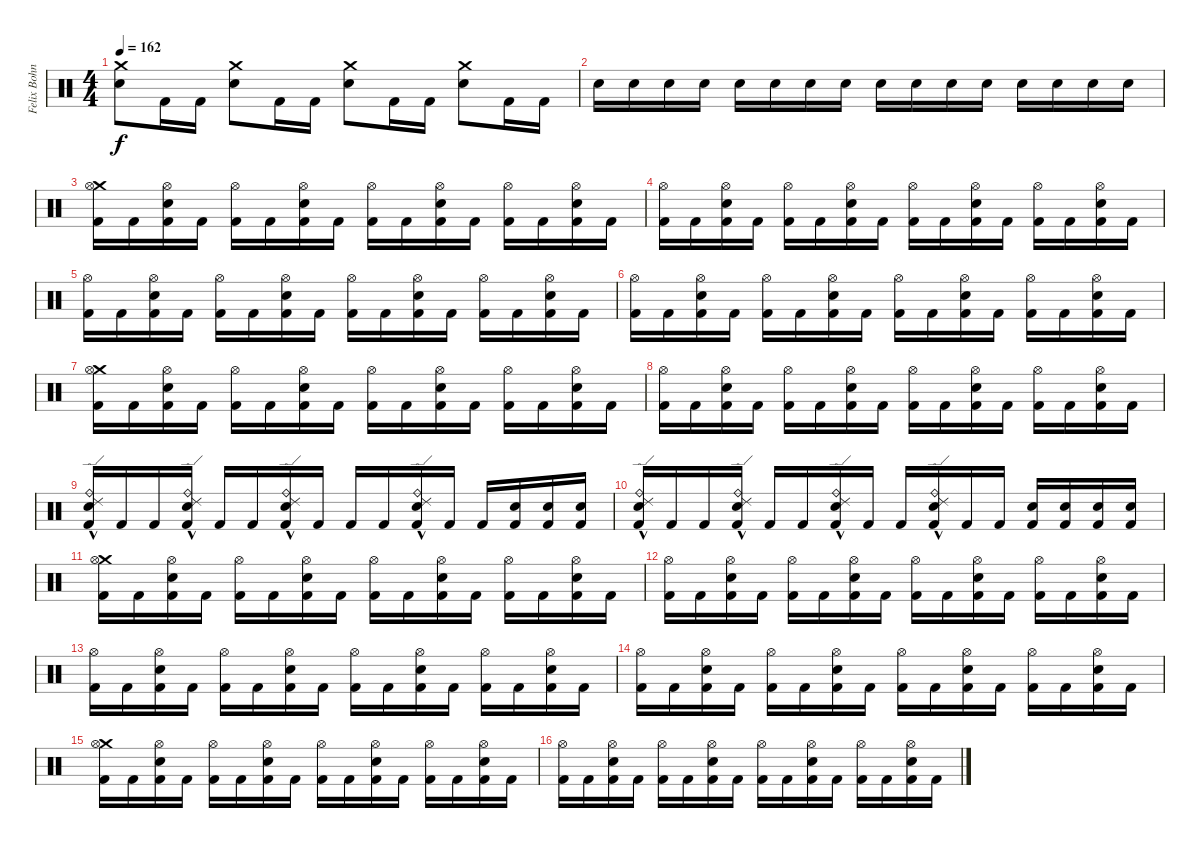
\track ("Felix Bohnke" "Felix Bohn") {instrument percussion}
\staff {score}
\articulation defaults
\ts (4 4)
\tempo 162
\clef neutral
\ks c
("Electric Snare (hit)" "Crash medium (hit)").8{dy f} "Kick (hit) 2".16 "Kick (hit) 2".16 ("Electric Snare (hit)" "Crash medium (hit)").8 "Kick (hit) 2".16 "Kick (hit) 2".16 ("Electric Snare (hit)" "Crash medium (hit)").8 "Kick (hit) 2".16 "Kick (hit) 2".16 ("Electric Snare (hit)" "Crash medium (hit)").8 "Kick (hit) 2".16 "Kick (hit) 2".16 |
"Electric Snare (hit)".16 "Electric Snare (hit)".16 "Electric Snare (hit)".16 "Electric Snare (hit)".16 "Electric Snare (hit)".16 "Electric Snare (hit)".16 "Electric Snare (hit)".16 "Electric Snare (hit)".16 "Electric Snare (hit)".16 "Electric Snare (hit)".16 "Electric Snare (hit)".16 "Electric Snare (hit)".16 "Electric Snare (hit)".16 "Electric Snare (hit)".16 "Electric Snare (hit)".16 "Electric Snare (hit)".16 |
("Crash medium (hit)" "Hi-Hat (open)" "Kick (hit) 2").16 "Kick (hit) 2".16 ("Electric Snare (hit)" "Hi-Hat (open)" "Kick (hit) 2").16 "Kick (hit) 2".16 ("Hi-Hat (open)" "Kick (hit) 2").16 "Kick (hit) 2".16 ("Electric Snare (hit)" "Hi-Hat (open)" "Kick (hit) 2").16 "Kick (hit) 2".16 ("Hi-Hat (open)" "Kick (hit) 2").16 "Kick (hit) 2".16 ("Electric Snare (hit)" "Hi-Hat (open)" "Kick (hit) 2").16 "Kick (hit) 2".16 ("Hi-Hat (open)" "Kick (hit) 2").16 "Kick (hit) 2".16 ("Electric Snare (hit)" "Hi-Hat (open)" "Kick (hit) 2").16 "Kick (hit) 2".16 |
("Hi-Hat (open)" "Kick (hit) 2").16 "Kick (hit) 2".16 ("Electric Snare (hit)" "Hi-Hat (open)" "Kick (hit) 2").16 "Kick (hit) 2".16 ("Hi-Hat (open)" "Kick (hit) 2").16 "Kick (hit) 2".16 ("Electric Snare (hit)" "Hi-Hat (open)" "Kick (hit) 2").16 "Kick (hit) 2".16 ("Hi-Hat (open)" "Kick (hit) 2").16 "Kick (hit) 2".16 ("Electric Snare (hit)" "Hi-Hat (open)" "Kick (hit) 2").16 "Kick (hit) 2".16 ("Hi-Hat (open)" "Kick (hit) 2").16 "Kick (hit) 2".16 ("Electric Snare (hit)" "Hi-Hat (open)" "Kick (hit) 2").16 "Kick (hit) 2".16 |
("Hi-Hat (open)" "Kick (hit) 2").16 "Kick (hit) 2".16 ("Electric Snare (hit)" "Hi-Hat (open)" "Kick (hit) 2").16 "Kick (hit) 2".16 ("Hi-Hat (open)" "Kick (hit) 2").16 "Kick (hit) 2".16 ("Electric Snare (hit)" "Hi-Hat (open)" "Kick (hit) 2").16 "Kick (hit) 2".16 ("Hi-Hat (open)" "Kick (hit) 2").16 "Kick (hit) 2".16 ("Electric Snare (hit)" "Hi-Hat (open)" "Kick (hit) 2").16 "Kick (hit) 2".16 ("Hi-Hat (open)" "Kick (hit) 2").16 "Kick (hit) 2".16 ("Electric Snare (hit)" "Hi-Hat (open)" "Kick (hit) 2").16 "Kick (hit) 2".16 |
("Hi-Hat (open)" "Kick (hit) 2").16 "Kick (hit) 2".16 ("Electric Snare (hit)" "Hi-Hat (open)" "Kick (hit) 2").16 "Kick (hit) 2".16 ("Hi-Hat (open)" "Kick (hit) 2").16 "Kick (hit) 2".16 ("Electric Snare (hit)" "Hi-Hat (open)" "Kick (hit) 2").16 "Kick (hit) 2".16 ("Hi-Hat (open)" "Kick (hit) 2").16 "Kick (hit) 2".16 ("Electric Snare (hit)" "Hi-Hat (open)" "Kick (hit) 2").16 "Kick (hit) 2".16 ("Hi-Hat (open)" "Kick (hit) 2").16 "Kick (hit) 2".16 ("Electric Snare (hit)" "Hi-Hat (open)" "Kick (hit) 2").16 "Kick (hit) 2".16 |
("Crash medium (hit)" "Hi-Hat (open)" "Kick (hit) 2").16 "Kick (hit) 2".16 ("Electric Snare (hit)" "Hi-Hat (open)" "Kick (hit) 2").16 "Kick (hit) 2".16 ("Hi-Hat (open)" "Kick (hit) 2").16 "Kick (hit) 2".16 ("Electric Snare (hit)" "Hi-Hat (open)" "Kick (hit) 2").16 "Kick (hit) 2".16 ("Hi-Hat (open)" "Kick (hit) 2").16 "Kick (hit) 2".16 ("Electric Snare (hit)" "Hi-Hat (open)" "Kick (hit) 2").16 "Kick (hit) 2".16 ("Hi-Hat (open)" "Kick (hit) 2").16 "Kick (hit) 2".16 ("Electric Snare (hit)" "Hi-Hat (open)" "Kick (hit) 2").16 "Kick (hit) 2".16 |
("Hi-Hat (open)" "Kick (hit) 2").16 "Kick (hit) 2".16 ("Electric Snare (hit)" "Hi-Hat (open)" "Kick (hit) 2").16 "Kick (hit) 2".16 ("Hi-Hat (open)" "Kick (hit) 2").16 "Kick (hit) 2".16 ("Electric Snare (hit)" "Hi-Hat (open)" "Kick (hit) 2").16 "Kick (hit) 2".16 ("Hi-Hat (open)" "Kick (hit) 2").16 "Kick (hit) 2".16 ("Electric Snare (hit)" "Hi-Hat (open)" "Kick (hit) 2").16 "Kick (hit) 2".16 ("Hi-Hat (open)" "Kick (hit) 2").16 "Kick (hit) 2".16 ("Electric Snare (hit)" "Hi-Hat (open)" "Kick (hit) 2").16 "Kick (hit) 2".16 |
("Electric Snare (hit)"{hac} "Ride (bell)"{hac} "Ride (edge) 2"{hac} "Kick (hit) 2").16 "Kick (hit) 2".16 "Kick (hit) 2".16 ("Electric Snare (hit)"{hac} "Ride (bell)"{hac} "Ride (edge) 2"{hac} "Kick (hit) 2").16 "Kick (hit) 2".16 "Kick (hit) 2".16 ("Electric Snare (hit)"{hac} "Ride (bell)"{hac} "Ride (edge) 2"{hac} "Kick (hit) 2").16 "Kick (hit) 2".16 "Kick (hit) 2".16 "Kick (hit) 2".16 ("Electric Snare (hit)"{hac} "Ride (bell)"{hac} "Ride (edge) 2"{hac} "Kick (hit) 2").16 "Kick (hit) 2".16 "Kick (hit) 2".16 ("Electric Snare (hit)" "Kick (hit) 2").16 ("Electric Snare (hit)" "Kick (hit) 2").16 ("Electric Snare (hit)" "Kick (hit) 2").16 |
("Ride (bell)"{hac} "Electric Snare (hit)"{hac} "Ride (edge) 2"{hac} "Kick (hit) 2").16 "Kick (hit) 2".16 "Kick (hit) 2".16 ("Ride (bell)"{hac} "Electric Snare (hit)"{hac} "Ride (edge) 2"{hac} "Kick (hit) 2").16 "Kick (hit) 2".16 "Kick (hit) 2".16 ("Ride (bell)"{hac} "Electric Snare (hit)"{hac} "Ride (edge) 2"{hac} "Kick (hit) 2").16 "Kick (hit) 2".16 "Kick (hit) 2".16 ("Ride (bell)"{hac} "Electric Snare (hit)"{hac} "Ride (edge) 2"{hac} "Kick (hit) 2").16 "Kick (hit) 2".16 "Kick (hit) 2".16 ("Electric Snare (hit)" "Kick (hit) 2").16 ("Electric Snare (hit)" "Kick (hit) 2").16 ("Electric Snare (hit)" "Kick (hit) 2").16 ("Electric Snare (hit)" "Kick (hit) 2").16 |
("Crash medium (hit)" "Hi-Hat (open)" "Kick (hit) 2").16 "Kick (hit) 2".16 ("Electric Snare (hit)" "Hi-Hat (open)" "Kick (hit) 2").16 "Kick (hit) 2".16 ("Hi-Hat (open)" "Kick (hit) 2").16 "Kick (hit) 2".16 ("Electric Snare (hit)" "Hi-Hat (open)" "Kick (hit) 2").16 "Kick (hit) 2".16 ("Hi-Hat (open)" "Kick (hit) 2").16 "Kick (hit) 2".16 ("Electric Snare (hit)" "Hi-Hat (open)" "Kick (hit) 2").16 "Kick (hit) 2".16 ("Hi-Hat (open)" "Kick (hit) 2").16 "Kick (hit) 2".16 ("Electric Snare (hit)" "Hi-Hat (open)" "Kick (hit) 2").16 "Kick (hit) 2".16 |
("Hi-Hat (open)" "Kick (hit) 2").16 "Kick (hit) 2".16 ("Electric Snare (hit)" "Hi-Hat (open)" "Kick (hit) 2").16 "Kick (hit) 2".16 ("Hi-Hat (open)" "Kick (hit) 2").16 "Kick (hit) 2".16 ("Electric Snare (hit)" "Hi-Hat (open)" "Kick (hit) 2").16 "Kick (hit) 2".16 ("Hi-Hat (open)" "Kick (hit) 2").16 "Kick (hit) 2".16 ("Electric Snare (hit)" "Hi-Hat (open)" "Kick (hit) 2").16 "Kick (hit) 2".16 ("Hi-Hat (open)" "Kick (hit) 2").16 "Kick (hit) 2".16 ("Electric Snare (hit)" "Hi-Hat (open)" "Kick (hit) 2").16 "Kick (hit) 2".16 |
("Hi-Hat (open)" "Kick (hit) 2").16 "Kick (hit) 2".16 ("Electric Snare (hit)" "Hi-Hat (open)" "Kick (hit) 2").16 "Kick (hit) 2".16 ("Hi-Hat (open)" "Kick (hit) 2").16 "Kick (hit) 2".16 ("Electric Snare (hit)" "Hi-Hat (open)" "Kick (hit) 2").16 "Kick (hit) 2".16 ("Hi-Hat (open)" "Kick (hit) 2").16 "Kick (hit) 2".16 ("Electric Snare (hit)" "Hi-Hat (open)" "Kick (hit) 2").16 "Kick (hit) 2".16 ("Hi-Hat (open)" "Kick (hit) 2").16 "Kick (hit) 2".16 ("Electric Snare (hit)" "Hi-Hat (open)" "Kick (hit) 2").16 "Kick (hit) 2".16 |
("Hi-Hat (open)" "Kick (hit) 2").16 "Kick (hit) 2".16 ("Electric Snare (hit)" "Hi-Hat (open)" "Kick (hit) 2").16 "Kick (hit) 2".16 ("Hi-Hat (open)" "Kick (hit) 2").16 "Kick (hit) 2".16 ("Electric Snare (hit)" "Hi-Hat (open)" "Kick (hit) 2").16 "Kick (hit) 2".16 ("Hi-Hat (open)" "Kick (hit) 2").16 "Kick (hit) 2".16 ("Electric Snare (hit)" "Hi-Hat (open)" "Kick (hit) 2").16 "Kick (hit) 2".16 ("Hi-Hat (open)" "Kick (hit) 2").16 "Kick (hit) 2".16 ("Electric Snare (hit)" "Hi-Hat (open)" "Kick (hit) 2").16 "Kick (hit) 2".16 |
("Crash medium (hit)" "Hi-Hat (open)" "Kick (hit) 2").16 "Kick (hit) 2".16 ("Electric Snare (hit)" "Hi-Hat (open)" "Kick (hit) 2").16 "Kick (hit) 2".16 ("Hi-Hat (open)" "Kick (hit) 2").16 "Kick (hit) 2".16 ("Electric Snare (hit)" "Hi-Hat (open)" "Kick (hit) 2").16 "Kick (hit) 2".16 ("Hi-Hat (open)" "Kick (hit) 2").16 "Kick (hit) 2".16 ("Electric Snare (hit)" "Hi-Hat (open)" "Kick (hit) 2").16 "Kick (hit) 2".16 ("Hi-Hat (open)" "Kick (hit) 2").16 "Kick (hit) 2".16 ("Electric Snare (hit)" "Hi-Hat (open)" "Kick (hit) 2").16 "Kick (hit) 2".16 |
("Hi-Hat (open)" "Kick (hit) 2").16 "Kick (hit) 2".16 ("Electric Snare (hit)" "Hi-Hat (open)" "Kick (hit) 2").16 "Kick (hit) 2".16 ("Hi-Hat (open)" "Kick (hit) 2").16 "Kick (hit) 2".16 ("Electric Snare (hit)" "Hi-Hat (open)" "Kick (hit) 2").16 "Kick (hit) 2".16 ("Hi-Hat (open)" "Kick (hit) 2").16 "Kick (hit) 2".16 ("Electric Snare (hit)" "Hi-Hat (open)" "Kick (hit) 2").16 "Kick (hit) 2".16 ("Hi-Hat (open)" "Kick (hit) 2").16 "Kick (hit) 2".16 ("Electric Snare (hit)" "Hi-Hat (open)" "Kick (hit) 2").16 "Kick (hit) 2".16
